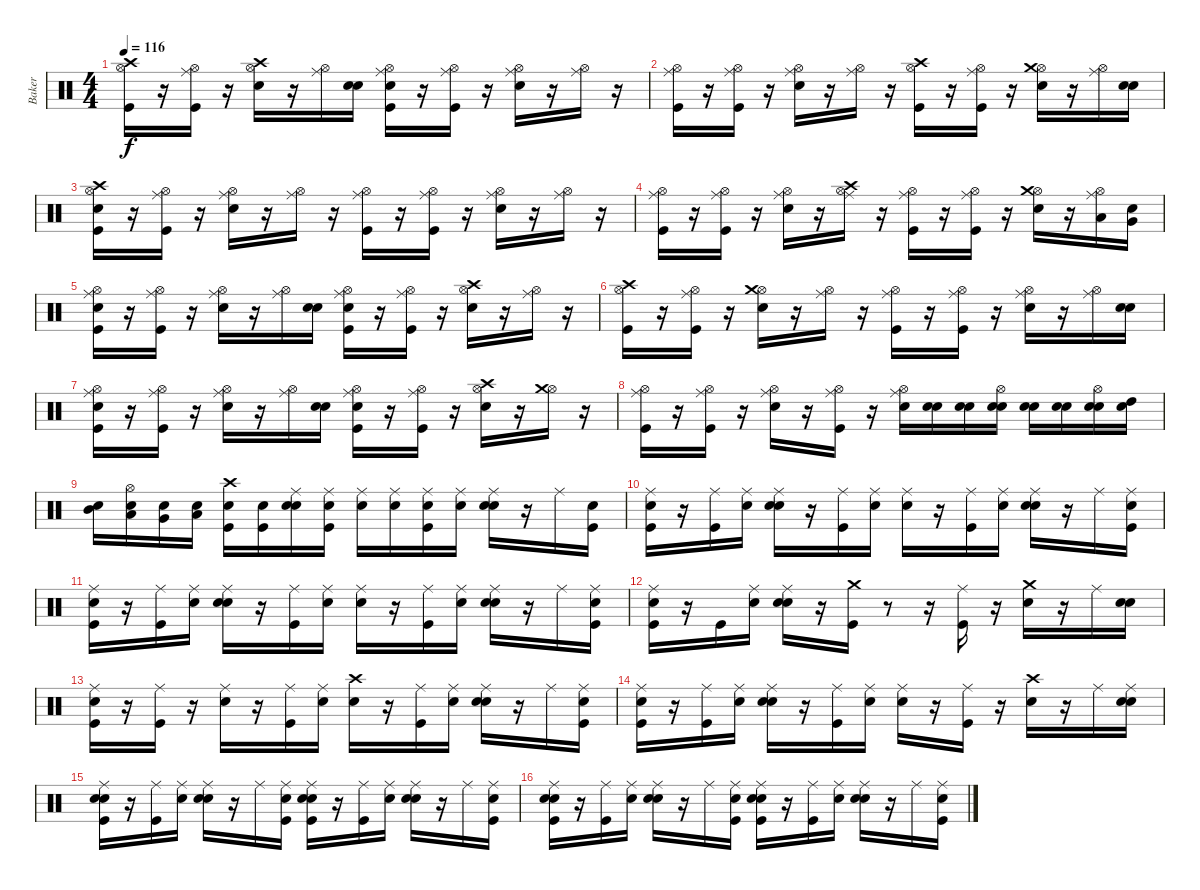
\track ("Baker" "Baker") {instrument percussion}
\staff {score}
\articulation defaults
\ts (4 4)
\tempo 116
\clef neutral
\ks c
("Kick (hit)" "Hi-Hat (open)" "Crash high (hit)").16{dy f} r.16 ("Kick (hit)" "Hi-Hat (open)" "Ride (middle)").16 r.16 ("Electric Snare (hit)" "Hi-Hat (open)" "Crash high (hit)").16 r.16 ("Hi-Hat (open)" "Ride (middle)").16 ("Snare (hit)" "Electric Snare (hit)").16 ("Snare (hit)" "Kick (hit)" "Hi-Hat (open)" "Ride (middle)").16 r.16 ("Kick (hit)" "Hi-Hat (open)" "Ride (middle)").16 r.16 ("Electric Snare (hit)" "Hi-Hat (open)" "Ride (middle)").16 r.16 ("Hi-Hat (open)" "Ride (middle)").16 r.16 |
("Kick (hit)" "Hi-Hat (open)" "Ride (middle)").16 r.16 ("Kick (hit)" "Hi-Hat (open)" "Ride (middle)").16 r.16 ("Electric Snare (hit)" "Hi-Hat (open)" "Ride (middle)").16 r.16 ("Hi-Hat (open)" "Ride (middle)").16 r.16 ("Kick (hit)" "Hi-Hat (open)" "Crash high (hit)").16 r.16 ("Kick (hit)" "Hi-Hat (open)" "Ride (middle)").16 r.16 ("Electric Snare (hit)" "Hi-Hat (open)" "Crash medium (hit)").16 r.16 ("Hi-Hat (open)" "Ride (middle)").16 ("Snare (hit)" "Electric Snare (hit)").16 |
("Snare (hit)" "Kick (hit)" "Hi-Hat (open)" "Crash high (hit)").16 r.16 ("Kick (hit)" "Hi-Hat (open)" "Ride (middle)").16 r.16 ("Electric Snare (hit)" "Hi-Hat (open)" "Ride (middle)").16 r.16 ("Hi-Hat (open)" "Ride (middle)").16 r.16 ("Kick (hit)" "Hi-Hat (open)" "Ride (middle)").16 r.16 ("Kick (hit)" "Hi-Hat (open)" "Ride (middle)").16 r.16 ("Electric Snare (hit)" "Hi-Hat (open)" "Ride (middle)").16 r.16 ("Hi-Hat (open)" "Ride (middle)").16 r.16 |
("Kick (hit)" "Hi-Hat (open)" "Ride (middle)").16 r.16 ("Kick (hit)" "Hi-Hat (open)" "Ride (middle)").16 r.16 ("Electric Snare (hit)" "Hi-Hat (open)" "Ride (middle)").16 r.16 ("Hi-Hat (open)" "Crash high (hit)" "Ride (middle)").16 r.16 ("Kick (hit)" "Hi-Hat (open)" "Ride (middle)").16 r.16 ("Kick (hit)" "Hi-Hat (open)" "Ride (middle)").16 r.16 ("Electric Snare (hit)" "Hi-Hat (open)" "Crash medium (hit)").16 r.16 ("Low Tom (hit)" "Hi-Hat (open)" "Ride (middle)").16 ("Snare (hit)" "Very Low Tom (hit)").16 |
("Snare (hit)" "Kick (hit)" "Hi-Hat (open)" "Ride (middle)").16 r.16 ("Kick (hit)" "Hi-Hat (open)" "Ride (middle)").16 r.16 ("Electric Snare (hit)" "Hi-Hat (open)" "Ride (middle)").16 r.16 ("Hi-Hat (open)" "Ride (middle)").16 ("Snare (hit)" "Electric Snare (hit)").16 ("Snare (hit)" "Kick (hit)" "Hi-Hat (open)" "Ride (middle)").16 r.16 ("Kick (hit)" "Hi-Hat (open)" "Ride (middle)").16 r.16 ("Electric Snare (hit)" "Hi-Hat (open)" "Crash high (hit)").16 r.16 ("Hi-Hat (open)" "Ride (middle)").16 r.16 |
("Kick (hit)" "Hi-Hat (open)" "Crash high (hit)").16 r.16 ("Kick (hit)" "Hi-Hat (open)" "Ride (middle)").16 r.16 ("Electric Snare (hit)" "Hi-Hat (open)" "Crash medium (hit)").16 r.16 ("Hi-Hat (open)" "Ride (middle)").16 r.16 ("Kick (hit)" "Hi-Hat (open)" "Ride (middle)").16 r.16 ("Kick (hit)" "Hi-Hat (open)" "Ride (middle)").16 r.16 ("Electric Snare (hit)" "Hi-Hat (open)" "Ride (middle)").16 r.16 ("Hi-Hat (open)" "Ride (middle)").16 ("Snare (hit)" "Electric Snare (hit)").16 |
("Snare (hit)" "Kick (hit)" "Hi-Hat (open)" "Ride (middle)").16 r.16 ("Kick (hit)" "Hi-Hat (open)" "Ride (middle)").16 r.16 ("Electric Snare (hit)" "Hi-Hat (open)" "Ride (middle)").16 r.16 ("Hi-Hat (open)" "Ride (middle)").16 ("Snare (hit)" "Electric Snare (hit)").16 ("Snare (hit)" "Kick (hit)" "Hi-Hat (open)" "Ride (middle)").16 r.16 ("Kick (hit)" "Hi-Hat (open)" "Ride (middle)").16 r.16 ("Electric Snare (hit)" "Hi-Hat (open)" "Crash high (hit)").16 r.16 ("Hi-Hat (open)" "Crash medium (hit)").16 r.16 |
("Kick (hit)" "Hi-Hat (open)" "Ride (middle)").16 r.16 ("Kick (hit)" "Hi-Hat (open)" "Ride (middle)").16 r.16 ("Electric Snare (hit)" "Hi-Hat (open)" "Ride (middle)").16 r.16 ("Kick (hit)" "Hi-Hat (open)" "Ride (middle)").16 r.16 ("Electric Snare (hit)" "Hi-Hat (open)" "Ride (middle)").16 ("Snare (hit)" "Electric Snare (hit)").16 ("Snare (hit)" "Electric Snare (hit)").16 ("Snare (hit)" "Electric Snare (hit)" "Hi-Hat (open)").16 ("Snare (hit)" "Electric Snare (hit)").16 ("Snare (hit)" "Electric Snare (hit)").16 ("Snare (hit)" "Electric Snare (hit)" "Hi-Hat (open)").16 ("Snare (hit)" "High Tom (hit)").16 |
("Snare (hit)" "Mid Tom (hit)").16 ("Snare (hit)" "Low Tom (hit)" "Hi-Hat (open)").16 ("Snare (hit)" "Very Low Tom (hit)").16 ("Snare (hit)" "Low Floor Tom (hit)").16 ("Snare (hit)" "Crash high (hit)" "Kick (hit)").16 ("Snare (hit)" "Kick (hit)").16 ("Snare (hit)" "Electric Snare (hit)" "Ride (middle)").16 ("Snare (hit)" "Kick (hit)" "Ride (middle)").16 ("Snare (hit)" "Ride (middle)").16 ("Snare (hit)" "Ride (middle)").16 ("Snare (hit)" "Kick (hit)" "Ride (middle)").16 ("Snare (hit)" "Ride (middle)").16 ("Snare (hit)" "Electric Snare (hit)" "Ride (middle)").16 r.16 "Ride (middle)".16 ("Snare (hit)" "Kick (hit)").16 |
("Snare (hit)" "Kick (hit)" "Ride (middle)").16 r.16 ("Kick (hit)" "Ride (middle)").16 ("Snare (hit)" "Ride (middle)").16 ("Snare (hit)" "Electric Snare (hit)" "Ride (middle)").16 r.16 ("Kick (hit)" "Ride (middle)").16 ("Snare (hit)" "Ride (middle)").16 ("Snare (hit)" "Ride (middle)").16 r.16 ("Kick (hit)" "Ride (middle)").16 ("Snare (hit)" "Ride (middle)").16 ("Snare (hit)" "Electric Snare (hit)" "Ride (middle)").16 r.16 "Ride (middle)".16 ("Snare (hit)" "Kick (hit)" "Ride (middle)").16 |
("Snare (hit)" "Kick (hit)" "Ride (middle)").16 r.16 ("Kick (hit)" "Ride (middle)").16 ("Snare (hit)" "Ride (middle)").16 ("Snare (hit)" "Electric Snare (hit)" "Ride (middle)").16 r.16 ("Kick (hit)" "Ride (middle)").16 ("Snare (hit)" "Ride (middle)").16 ("Snare (hit)" "Ride (middle)").16 r.16 ("Kick (hit)" "Ride (middle)").16 ("Snare (hit)" "Ride (middle)").16 ("Snare (hit)" "Electric Snare (hit)" "Ride (middle)").16 r.16 "Ride (middle)".16 ("Snare (hit)" "Kick (hit)" "Ride (middle)").16 |
("Snare (hit)" "Kick (hit)" "Ride (middle)").16 r.16 "Kick (hit)".16 ("Snare (hit)" "Ride (middle)").16 ("Snare (hit)" "Electric Snare (hit)" "Ride (middle)").16 r.16 ("Kick (hit)" "Crash medium (hit)").16 r.8 r.16 ("Kick (hit)" "Ride (middle)").16 r.16 ("Electric Snare (hit)" "Crash medium (hit)").16 r.16 "Ride (middle)".16 ("Snare (hit)" "Electric Snare (hit)").16 |
("Snare (hit)" "Kick (hit)" "Ride (middle)").16 r.16 ("Kick (hit)" "Ride (middle)").16 r.16 ("Electric Snare (hit)" "Ride (middle)").16 r.16 ("Kick (hit)" "Ride (middle)").16 ("Snare (hit)" "Ride (middle)").16 ("Snare (hit)" "Crash high (hit)").16 r.16 ("Kick (hit)" "Ride (middle)").16 ("Snare (hit)" "Ride (middle)").16 ("Snare (hit)" "Electric Snare (hit)" "Ride (middle)").16 r.16 "Ride (middle)".16 ("Snare (hit)" "Kick (hit)" "Ride (middle)").16 |
("Snare (hit)" "Kick (hit)" "Ride (middle)").16 r.16 ("Kick (hit)" "Ride (middle)").16 ("Snare (hit)" "Ride (middle)").16 ("Snare (hit)" "Electric Snare (hit)" "Ride (middle)").16 r.16 ("Kick (hit)" "Ride (middle)").16 ("Snare (hit)" "Ride (middle)").16 ("Snare (hit)" "Ride (middle)").16 r.16 ("Kick (hit)" "Ride (middle)").16 r.16 ("Electric Snare (hit)" "Crash high (hit)").16 r.16 "Ride (middle)".16 ("Snare (hit)" "Electric Snare (hit)" "Ride (middle)").16 |
("Snare (hit)" "Kick (hit)" "Electric Snare (hit)" "Ride (middle)").16 r.16 ("Kick (hit)" "Ride (middle)").16 ("Snare (hit)" "Ride (middle)").16 ("Snare (hit)" "Electric Snare (hit)" "Ride (middle)").16 r.16 "Ride (middle)".16 ("Snare (hit)" "Kick (hit)" "Ride (middle)").16 ("Snare (hit)" "Kick (hit)" "Electric Snare (hit)" "Ride (middle)").16 r.16 ("Kick (hit)" "Ride (middle)").16 ("Snare (hit)" "Ride (middle)").16 ("Snare (hit)" "Electric Snare (hit)" "Ride (middle)").16 r.16 "Ride (middle)".16 ("Snare (hit)" "Kick (hit)" "Ride (middle)").16 |
("Snare (hit)" "Kick (hit)" "Electric Snare (hit)" "Ride (middle)").16 r.16 ("Kick (hit)" "Ride (middle)").16 ("Snare (hit)" "Ride (middle)").16 ("Snare (hit)" "Electric Snare (hit)" "Ride (middle)").16 r.16 "Ride (middle)".16 ("Snare (hit)" "Kick (hit)" "Ride (middle)").16 ("Snare (hit)" "Kick (hit)" "Electric Snare (hit)" "Ride (middle)").16 r.16 ("Kick (hit)" "Ride (middle)").16 ("Snare (hit)" "Ride (middle)").16 ("Snare (hit)" "Electric Snare (hit)" "Ride (middle)").16 r.16 "Ride (middle)".16 ("Snare (hit)" "Kick (hit)" "Ride (middle)").16
